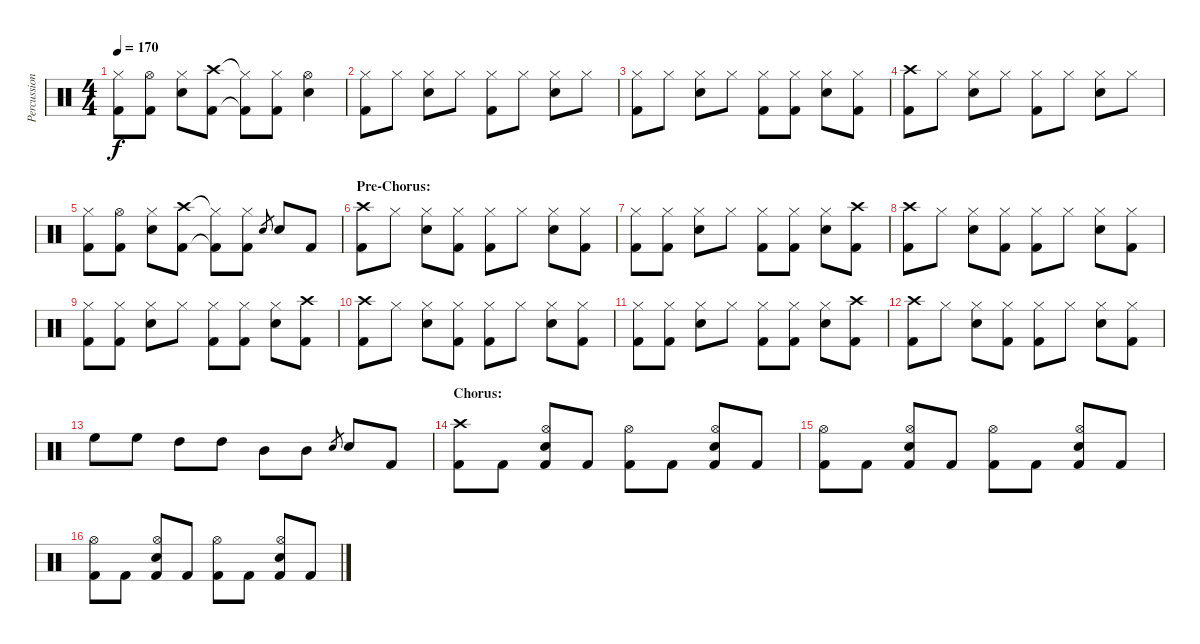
\track ("Percussion" "Percussion") {instrument percussion}
\staff {score}
\articulation defaults
\ts (4 4)
\tempo 170
\clef neutral
\ks c
("Hi-Hat (closed)" "Kick (hit) 2").8{dy f} ("Hi-Hat (open)" "Kick (hit) 2").8 ("Hi-Hat (closed)" "Snare (hit) 2").8 ("Crash high (hit)" "Kick (hit) 2").8 ("Hi-Hat (closed)"{t} "Kick (hit) 2"{t}).8 ("Hi-Hat (closed)" "Kick (hit) 2").8 ("Hi-Hat (open)" "Snare (hit) 2").4 |
("Hi-Hat (closed)" "Kick (hit) 2").8 "Hi-Hat (closed)".8 ("Hi-Hat (closed)" "Snare (hit) 2").8 "Hi-Hat (closed)".8 ("Hi-Hat (closed)" "Kick (hit) 2").8 "Hi-Hat (closed)".8 ("Hi-Hat (closed)" "Snare (hit) 2").8 "Hi-Hat (closed)".8 |
("Hi-Hat (closed)" "Kick (hit) 2").8 "Hi-Hat (closed)".8 ("Hi-Hat (closed)" "Snare (hit) 2").8 "Hi-Hat (closed)".8 ("Hi-Hat (closed)" "Kick (hit) 2").8 ("Hi-Hat (closed)" "Kick (hit) 2").8 ("Hi-Hat (closed)" "Snare (hit) 2").8 ("Hi-Hat (closed)" "Kick (hit) 2").8 |
("Crash high (hit)" "Kick (hit) 2").8 "Hi-Hat (closed)".8 ("Hi-Hat (closed)" "Snare (hit) 2").8 "Hi-Hat (closed)".8 ("Hi-Hat (closed)" "Kick (hit) 2").8 "Hi-Hat (closed)".8 ("Hi-Hat (closed)" "Snare (hit) 2").8 "Hi-Hat (closed)".8 |
("Hi-Hat (closed)" "Kick (hit) 2").8 ("Hi-Hat (open)" "Kick (hit) 2").8 ("Hi-Hat (closed)" "Snare (hit) 2").8 ("Crash high (hit)" "Kick (hit) 2").8 ("Hi-Hat (closed)"{t} "Kick (hit) 2"{t}).8 ("Hi-Hat (closed)" "Kick (hit) 2").8 "Snare (hit) 2".8{gr} "Snare (hit) 2".8 "Kick (hit) 2".8 |
\section ("" "Pre-Chorus:")
("Crash high (hit)" "Kick (hit) 2").8 "Hi-Hat (closed)".8 ("Hi-Hat (closed)" "Snare (hit) 2").8 ("Hi-Hat (closed)" "Kick (hit) 2").8 ("Hi-Hat (closed)" "Kick (hit) 2").8 "Hi-Hat (closed)".8 ("Hi-Hat (closed)" "Snare (hit) 2").8 ("Hi-Hat (closed)" "Kick (hit) 2").8 |
("Hi-Hat (closed)" "Kick (hit) 2").8 ("Hi-Hat (closed)" "Kick (hit) 2").8 ("Hi-Hat (closed)" "Snare (hit) 2").8 "Hi-Hat (closed)".8 ("Hi-Hat (closed)" "Kick (hit) 2").8 ("Hi-Hat (closed)" "Kick (hit) 2").8 ("Hi-Hat (closed)" "Snare (hit) 2").8 ("Crash high (hit)" "Kick (hit) 2").8 |
("Crash high (hit)" "Kick (hit) 2").8 "Hi-Hat (closed)".8 ("Hi-Hat (closed)" "Snare (hit) 2").8 ("Hi-Hat (closed)" "Kick (hit) 2").8 ("Hi-Hat (closed)" "Kick (hit) 2").8 "Hi-Hat (closed)".8 ("Hi-Hat (closed)" "Snare (hit) 2").8 ("Hi-Hat (closed)" "Kick (hit) 2").8 |
("Hi-Hat (closed)" "Kick (hit) 2").8 ("Hi-Hat (closed)" "Kick (hit) 2").8 ("Hi-Hat (closed)" "Snare (hit) 2").8 "Hi-Hat (closed)".8 ("Hi-Hat (closed)" "Kick (hit) 2").8 ("Hi-Hat (closed)" "Kick (hit) 2").8 ("Hi-Hat (closed)" "Snare (hit) 2").8 ("Crash high (hit)" "Kick (hit) 2").8 |
("Crash high (hit)" "Kick (hit) 2").8 "Hi-Hat (closed)".8 ("Hi-Hat (closed)" "Snare (hit) 2").8 ("Hi-Hat (closed)" "Kick (hit) 2").8 ("Hi-Hat (closed)" "Kick (hit) 2").8 "Hi-Hat (closed)".8 ("Hi-Hat (closed)" "Snare (hit) 2").8 ("Hi-Hat (closed)" "Kick (hit) 2").8 |
("Hi-Hat (closed)" "Kick (hit) 2").8 ("Hi-Hat (closed)" "Kick (hit) 2").8 ("Hi-Hat (closed)" "Snare (hit) 2").8 "Hi-Hat (closed)".8 ("Hi-Hat (closed)" "Kick (hit) 2").8 ("Hi-Hat (closed)" "Kick (hit) 2").8 ("Hi-Hat (closed)" "Snare (hit) 2").8 ("Crash high (hit)" "Kick (hit) 2").8 |
("Crash high (hit)" "Kick (hit) 2").8 "Hi-Hat (closed)".8 ("Hi-Hat (closed)" "Snare (hit) 2").8 ("Hi-Hat (closed)" "Kick (hit) 2").8 ("Hi-Hat (closed)" "Kick (hit) 2").8 "Hi-Hat (closed)".8 ("Hi-Hat (closed)" "Snare (hit) 2").8 ("Hi-Hat (closed)" "Kick (hit) 2").8 |
"High Floor Tom (hit)".8 "High Floor Tom (hit)".8 "High Tom (hit)".8 "High Tom (hit)".8 "Mid Tom (hit)".8 "Mid Tom (hit)".8 "Snare (hit) 2".8{gr} "Snare (hit) 2".8 "Kick (hit) 2".8 |
\section ("" "Chorus:")
("Crash high (hit)" "Kick (hit) 2").8 "Kick (hit) 2".8 ("Hi-Hat (open)" "Snare (hit) 2" "Kick (hit) 2").8 "Kick (hit) 2".8 ("Hi-Hat (open)" "Kick (hit) 2").8 "Kick (hit) 2".8 ("Hi-Hat (open)" "Snare (hit) 2" "Kick (hit) 2").8 "Kick (hit) 2".8 |
("Hi-Hat (open)" "Kick (hit) 2").8 "Kick (hit) 2".8 ("Hi-Hat (open)" "Snare (hit) 2" "Kick (hit) 2").8 "Kick (hit) 2".8 ("Hi-Hat (open)" "Kick (hit) 2").8 "Kick (hit) 2".8 ("Hi-Hat (open)" "Snare (hit) 2" "Kick (hit) 2").8 "Kick (hit) 2".8 |
("Hi-Hat (open)" "Kick (hit) 2").8 "Kick (hit) 2".8 ("Hi-Hat (open)" "Snare (hit) 2" "Kick (hit) 2").8 "Kick (hit) 2".8 ("Hi-Hat (open)" "Kick (hit) 2").8 "Kick (hit) 2".8 ("Hi-Hat (open)" "Snare (hit) 2" "Kick (hit) 2").8 "Kick (hit) 2".8
